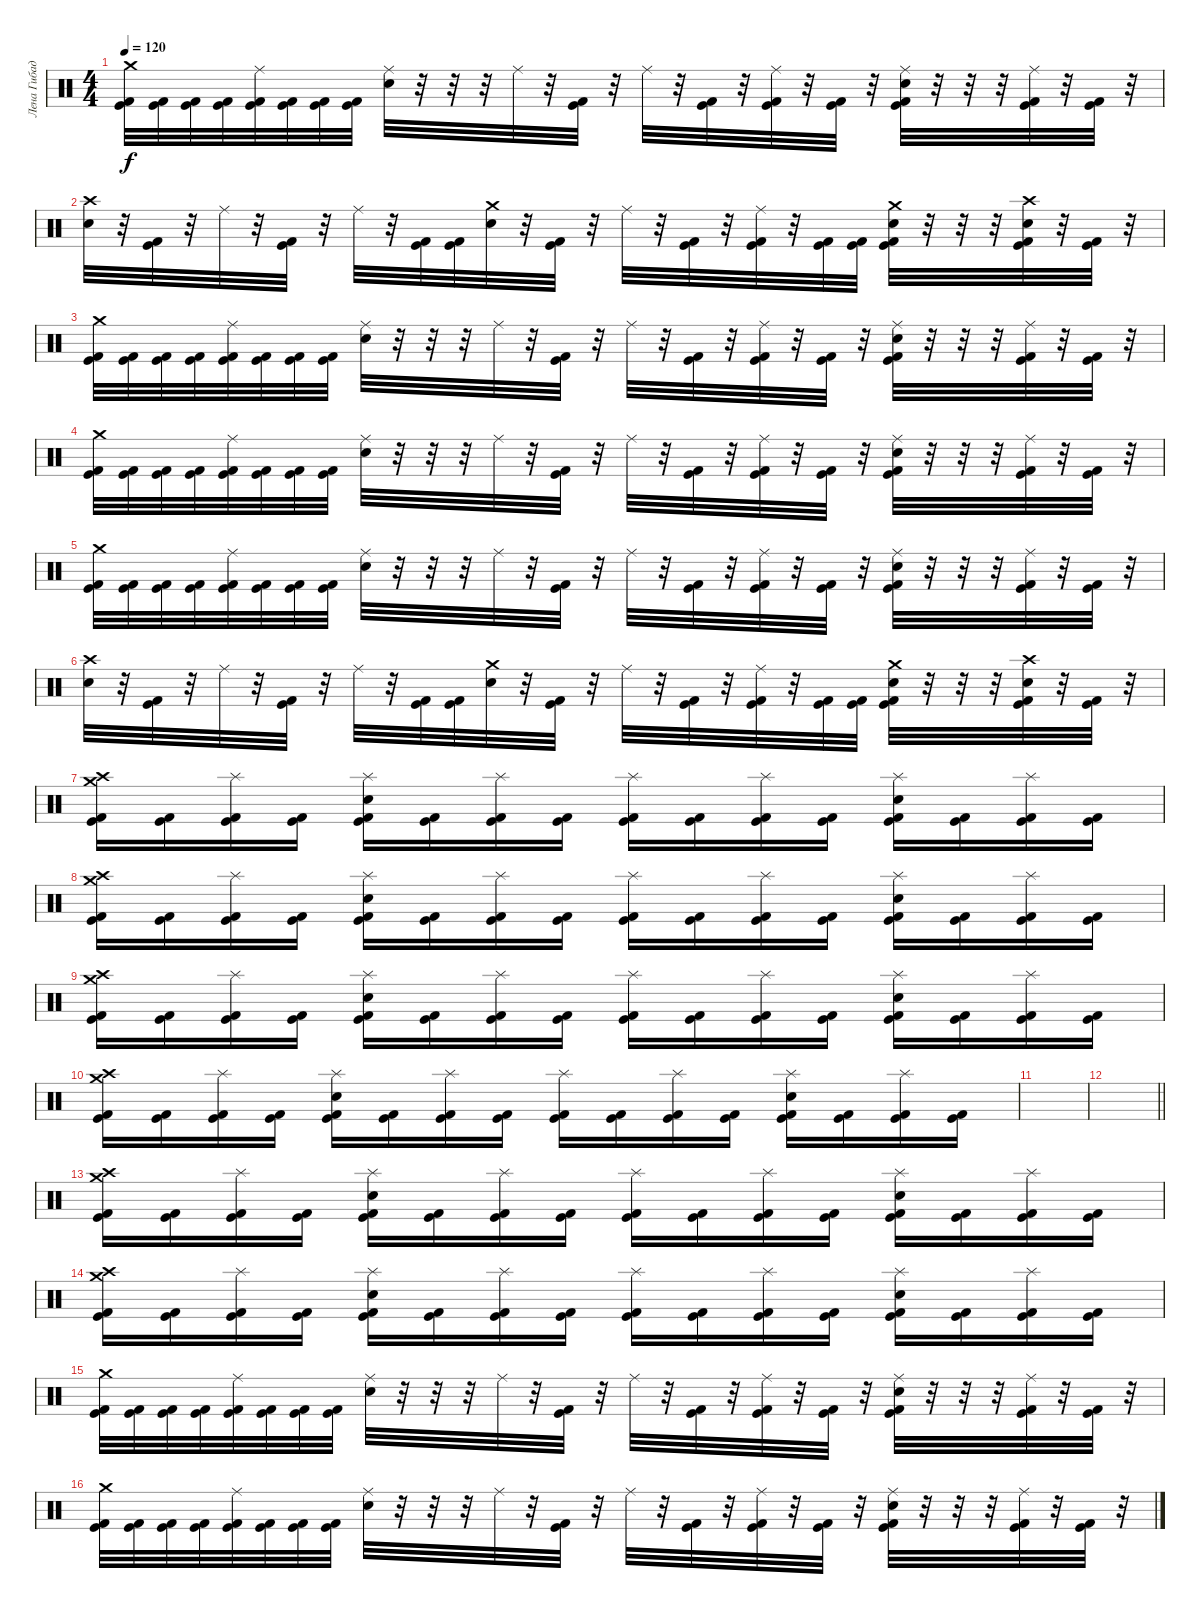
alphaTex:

\track ("Лена Гибадулина" "Лена Гибад") {instrument percussion}
\staff {score}
\articulation defaults
\ts (4 4)
\tempo 120
\clef neutral
\ks c
("Crash medium (hit)" "Kick (hit)" "Kick (hit) 2").32{dy f} ("Kick (hit)" "Kick (hit) 2").32 ("Kick (hit)" "Kick (hit) 2").32 ("Kick (hit)" "Kick (hit) 2").32 ("Ride (middle)" "Kick (hit)" "Kick (hit) 2").32 ("Kick (hit)" "Kick (hit) 2").32 ("Kick (hit)" "Kick (hit) 2").32 ("Kick (hit)" "Kick (hit) 2").32 ("Ride (middle)" "Electric Snare (hit)").32 r.32 r.32 r.32 "Ride (middle)".32 r.32 ("Kick (hit)" "Kick (hit) 2").32 r.32 "Ride (middle)".32 r.32 ("Kick (hit)" "Kick (hit) 2").32 r.32 ("Ride (middle)" "Kick (hit)" "Kick (hit) 2").32 r.32 ("Kick (hit)" "Kick (hit) 2").32 r.32 ("Ride (middle)" "Electric Snare (hit)" "Kick (hit)" "Kick (hit) 2").32 r.32 r.32 r.32 ("Ride (middle)" "Kick (hit)" "Kick (hit) 2").32 r.32 ("Kick (hit) 2" "Kick (hit)").32 r.32 |
("Crash high (hit)" "Electric Snare (hit)").32 r.32 ("Kick (hit)" "Kick (hit) 2").32 r.32 "Ride (middle)".32 r.32 ("Kick (hit)" "Kick (hit) 2").32 r.32 "Ride (middle)".32 r.32 ("Kick (hit)" "Kick (hit) 2").32 ("Kick (hit)" "Kick (hit) 2").32 ("Crash medium (hit)" "Electric Snare (hit)").32 r.32 ("Kick (hit)" "Kick (hit) 2").32 r.32 "Ride (middle)".32 r.32 ("Kick (hit)" "Kick (hit) 2").32 r.32 ("Ride (middle)" "Kick (hit)" "Kick (hit) 2").32 r.32 ("Kick (hit)" "Kick (hit) 2").32 ("Kick (hit)" "Kick (hit) 2").32 ("Crash medium (hit)" "Electric Snare (hit)" "Kick (hit)" "Kick (hit) 2").32 r.32 r.32 r.32 ("Crash high (hit)" "Electric Snare (hit)" "Kick (hit)" "Kick (hit) 2").32 r.32 ("Kick (hit) 2" "Kick (hit)").32 r.32 |
("Crash medium (hit)" "Kick (hit)" "Kick (hit) 2").32 ("Kick (hit)" "Kick (hit) 2").32 ("Kick (hit)" "Kick (hit) 2").32 ("Kick (hit)" "Kick (hit) 2").32 ("Ride (middle)" "Kick (hit)" "Kick (hit) 2").32 ("Kick (hit)" "Kick (hit) 2").32 ("Kick (hit)" "Kick (hit) 2").32 ("Kick (hit)" "Kick (hit) 2").32 ("Ride (middle)" "Electric Snare (hit)").32 r.32 r.32 r.32 "Ride (middle)".32 r.32 ("Kick (hit)" "Kick (hit) 2").32 r.32 "Ride (middle)".32 r.32 ("Kick (hit)" "Kick (hit) 2").32 r.32 ("Ride (middle)" "Kick (hit)" "Kick (hit) 2").32 r.32 ("Kick (hit)" "Kick (hit) 2").32 r.32 ("Ride (middle)" "Electric Snare (hit)" "Kick (hit)" "Kick (hit) 2").32 r.32 r.32 r.32 ("Ride (middle)" "Kick (hit)" "Kick (hit) 2").32 r.32 ("Kick (hit) 2" "Kick (hit)").32 r.32 |
("Crash medium (hit)" "Kick (hit)" "Kick (hit) 2").32 ("Kick (hit)" "Kick (hit) 2").32 ("Kick (hit)" "Kick (hit) 2").32 ("Kick (hit)" "Kick (hit) 2").32 ("Ride (middle)" "Kick (hit)" "Kick (hit) 2").32 ("Kick (hit)" "Kick (hit) 2").32 ("Kick (hit)" "Kick (hit) 2").32 ("Kick (hit)" "Kick (hit) 2").32 ("Ride (middle)" "Electric Snare (hit)").32 r.32 r.32 r.32 "Ride (middle)".32 r.32 ("Kick (hit)" "Kick (hit) 2").32 r.32 "Ride (middle)".32 r.32 ("Kick (hit)" "Kick (hit) 2").32 r.32 ("Ride (middle)" "Kick (hit)" "Kick (hit) 2").32 r.32 ("Kick (hit)" "Kick (hit) 2").32 r.32 ("Ride (middle)" "Electric Snare (hit)" "Kick (hit)" "Kick (hit) 2").32 r.32 r.32 r.32 ("Ride (middle)" "Kick (hit)" "Kick (hit) 2").32 r.32 ("Kick (hit) 2" "Kick (hit)").32 r.32 |
("Crash medium (hit)" "Kick (hit)" "Kick (hit) 2").32 ("Kick (hit)" "Kick (hit) 2").32 ("Kick (hit)" "Kick (hit) 2").32 ("Kick (hit)" "Kick (hit) 2").32 ("Ride (middle)" "Kick (hit)" "Kick (hit) 2").32 ("Kick (hit)" "Kick (hit) 2").32 ("Kick (hit)" "Kick (hit) 2").32 ("Kick (hit)" "Kick (hit) 2").32 ("Ride (middle)" "Electric Snare (hit)").32 r.32 r.32 r.32 "Ride (middle)".32 r.32 ("Kick (hit)" "Kick (hit) 2").32 r.32 "Ride (middle)".32 r.32 ("Kick (hit)" "Kick (hit) 2").32 r.32 ("Ride (middle)" "Kick (hit)" "Kick (hit) 2").32 r.32 ("Kick (hit)" "Kick (hit) 2").32 r.32 ("Ride (middle)" "Electric Snare (hit)" "Kick (hit)" "Kick (hit) 2").32 r.32 r.32 r.32 ("Ride (middle)" "Kick (hit)" "Kick (hit) 2").32 r.32 ("Kick (hit) 2" "Kick (hit)").32 r.32 |
("Crash high (hit)" "Electric Snare (hit)").32 r.32 ("Kick (hit)" "Kick (hit) 2").32 r.32 "Ride (middle)".32 r.32 ("Kick (hit)" "Kick (hit) 2").32 r.32 "Ride (middle)".32 r.32 ("Kick (hit)" "Kick (hit) 2").32 ("Kick (hit)" "Kick (hit) 2").32 ("Crash medium (hit)" "Electric Snare (hit)").32 r.32 ("Kick (hit)" "Kick (hit) 2").32 r.32 "Ride (middle)".32 r.32 ("Kick (hit)" "Kick (hit) 2").32 r.32 ("Ride (middle)" "Kick (hit)" "Kick (hit) 2").32 r.32 ("Kick (hit)" "Kick (hit) 2").32 ("Kick (hit)" "Kick (hit) 2").32 ("Crash medium (hit)" "Electric Snare (hit)" "Kick (hit)" "Kick (hit) 2").32 r.32 r.32 r.32 ("Crash high (hit)" "Electric Snare (hit)" "Kick (hit)" "Kick (hit) 2").32 r.32 ("Kick (hit) 2" "Kick (hit)").32 r.32 |
("Crash high (hit)" "Crash medium (hit)" "Kick (hit)" "Kick (hit) 2").16 ("Kick (hit)" "Kick (hit) 2").16 ("Splash (hit)" "Kick (hit)" "Kick (hit) 2").16 ("Kick (hit)" "Kick (hit) 2").16 ("Electric Snare (hit)" "Splash (hit)" "Kick (hit)" "Kick (hit) 2").16 ("Kick (hit)" "Kick (hit) 2").16 ("Splash (hit)" "Kick (hit)" "Kick (hit) 2").16 ("Kick (hit)" "Kick (hit) 2").16 ("Splash (hit)" "Kick (hit)" "Kick (hit) 2").16 ("Kick (hit)" "Kick (hit) 2").16 ("Splash (hit)" "Kick (hit)" "Kick (hit) 2").16 ("Kick (hit)" "Kick (hit) 2").16 ("Electric Snare (hit)" "Splash (hit)" "Kick (hit)" "Kick (hit) 2").16 ("Kick (hit)" "Kick (hit) 2").16 ("Splash (hit)" "Kick (hit)" "Kick (hit) 2").16 ("Kick (hit)" "Kick (hit) 2").16 |
("Crash high (hit)" "Crash medium (hit)" "Kick (hit)" "Kick (hit) 2").16 ("Kick (hit)" "Kick (hit) 2").16 ("Splash (hit)" "Kick (hit)" "Kick (hit) 2").16 ("Kick (hit)" "Kick (hit) 2").16 ("Electric Snare (hit)" "Splash (hit)" "Kick (hit)" "Kick (hit) 2").16 ("Kick (hit)" "Kick (hit) 2").16 ("Splash (hit)" "Kick (hit)" "Kick (hit) 2").16 ("Kick (hit)" "Kick (hit) 2").16 ("Splash (hit)" "Kick (hit)" "Kick (hit) 2").16 ("Kick (hit)" "Kick (hit) 2").16 ("Splash (hit)" "Kick (hit)" "Kick (hit) 2").16 ("Kick (hit)" "Kick (hit) 2").16 ("Electric Snare (hit)" "Splash (hit)" "Kick (hit)" "Kick (hit) 2").16 ("Kick (hit)" "Kick (hit) 2").16 ("Splash (hit)" "Kick (hit)" "Kick (hit) 2").16 ("Kick (hit)" "Kick (hit) 2").16 |
("Crash high (hit)" "Crash medium (hit)" "Kick (hit)" "Kick (hit) 2").16 ("Kick (hit)" "Kick (hit) 2").16 ("Splash (hit)" "Kick (hit)" "Kick (hit) 2").16 ("Kick (hit)" "Kick (hit) 2").16 ("Electric Snare (hit)" "Splash (hit)" "Kick (hit)" "Kick (hit) 2").16 ("Kick (hit)" "Kick (hit) 2").16 ("Splash (hit)" "Kick (hit)" "Kick (hit) 2").16 ("Kick (hit)" "Kick (hit) 2").16 ("Splash (hit)" "Kick (hit)" "Kick (hit) 2").16 ("Kick (hit)" "Kick (hit) 2").16 ("Splash (hit)" "Kick (hit)" "Kick (hit) 2").16 ("Kick (hit)" "Kick (hit) 2").16 ("Electric Snare (hit)" "Splash (hit)" "Kick (hit)" "Kick (hit) 2").16 ("Kick (hit)" "Kick (hit) 2").16 ("Splash (hit)" "Kick (hit)" "Kick (hit) 2").16 ("Kick (hit)" "Kick (hit) 2").16 |
("Crash high (hit)" "Crash medium (hit)" "Kick (hit)" "Kick (hit) 2").16 ("Kick (hit)" "Kick (hit) 2").16 ("Splash (hit)" "Kick (hit)" "Kick (hit) 2").16 ("Kick (hit)" "Kick (hit) 2").16 ("Electric Snare (hit)" "Splash (hit)" "Kick (hit)" "Kick (hit) 2").16 ("Kick (hit)" "Kick (hit) 2").16 ("Splash (hit)" "Kick (hit)" "Kick (hit) 2").16 ("Kick (hit)" "Kick (hit) 2").16 ("Splash (hit)" "Kick (hit)" "Kick (hit) 2").16 ("Kick (hit)" "Kick (hit) 2").16 ("Splash (hit)" "Kick (hit)" "Kick (hit) 2").16 ("Kick (hit)" "Kick (hit) 2").16 ("Electric Snare (hit)" "Splash (hit)" "Kick (hit)" "Kick (hit) 2").16 ("Kick (hit)" "Kick (hit) 2").16 ("Splash (hit)" "Kick (hit)" "Kick (hit) 2").16 ("Kick (hit)" "Kick (hit) 2").16 |
|
\barLineRight lightlight
|
("Crash high (hit)" "Crash medium (hit)" "Kick (hit)" "Kick (hit) 2").16 ("Kick (hit)" "Kick (hit) 2").16 ("Splash (hit)" "Kick (hit)" "Kick (hit) 2").16 ("Kick (hit)" "Kick (hit) 2").16 ("Electric Snare (hit)" "Splash (hit)" "Kick (hit)" "Kick (hit) 2").16 ("Kick (hit)" "Kick (hit) 2").16 ("Splash (hit)" "Kick (hit)" "Kick (hit) 2").16 ("Kick (hit)" "Kick (hit) 2").16 ("Splash (hit)" "Kick (hit)" "Kick (hit) 2").16 ("Kick (hit)" "Kick (hit) 2").16 ("Splash (hit)" "Kick (hit)" "Kick (hit) 2").16 ("Kick (hit)" "Kick (hit) 2").16 ("Electric Snare (hit)" "Splash (hit)" "Kick (hit)" "Kick (hit) 2").16 ("Kick (hit)" "Kick (hit) 2").16 ("Splash (hit)" "Kick (hit)" "Kick (hit) 2").16 ("Kick (hit)" "Kick (hit) 2").16 |
("Crash high (hit)" "Crash medium (hit)" "Kick (hit)" "Kick (hit) 2").16 ("Kick (hit)" "Kick (hit) 2").16 ("Splash (hit)" "Kick (hit)" "Kick (hit) 2").16 ("Kick (hit)" "Kick (hit) 2").16 ("Electric Snare (hit)" "Splash (hit)" "Kick (hit)" "Kick (hit) 2").16 ("Kick (hit)" "Kick (hit) 2").16 ("Splash (hit)" "Kick (hit)" "Kick (hit) 2").16 ("Kick (hit)" "Kick (hit) 2").16 ("Splash (hit)" "Kick (hit)" "Kick (hit) 2").16 ("Kick (hit)" "Kick (hit) 2").16 ("Splash (hit)" "Kick (hit)" "Kick (hit) 2").16 ("Kick (hit)" "Kick (hit) 2").16 ("Electric Snare (hit)" "Splash (hit)" "Kick (hit)" "Kick (hit) 2").16 ("Kick (hit)" "Kick (hit) 2").16 ("Splash (hit)" "Kick (hit)" "Kick (hit) 2").16 ("Kick (hit)" "Kick (hit) 2").16 |
("Crash medium (hit)" "Kick (hit)" "Kick (hit) 2").32 ("Kick (hit)" "Kick (hit) 2").32 ("Kick (hit)" "Kick (hit) 2").32 ("Kick (hit)" "Kick (hit) 2").32 ("Ride (middle)" "Kick (hit)" "Kick (hit) 2").32 ("Kick (hit)" "Kick (hit) 2").32 ("Kick (hit)" "Kick (hit) 2").32 ("Kick (hit)" "Kick (hit) 2").32 ("Ride (middle)" "Electric Snare (hit)").32 r.32 r.32 r.32 "Ride (middle)".32 r.32 ("Kick (hit)" "Kick (hit) 2").32 r.32 "Ride (middle)".32 r.32 ("Kick (hit)" "Kick (hit) 2").32 r.32 ("Ride (middle)" "Kick (hit)" "Kick (hit) 2").32 r.32 ("Kick (hit)" "Kick (hit) 2").32 r.32 ("Ride (middle)" "Electric Snare (hit)" "Kick (hit)" "Kick (hit) 2").32 r.32 r.32 r.32 ("Ride (middle)" "Kick (hit)" "Kick (hit) 2").32 r.32 ("Kick (hit) 2" "Kick (hit)").32 r.32 |
("Crash medium (hit)" "Kick (hit)" "Kick (hit) 2").32 ("Kick (hit)" "Kick (hit) 2").32 ("Kick (hit)" "Kick (hit) 2").32 ("Kick (hit)" "Kick (hit) 2").32 ("Ride (middle)" "Kick (hit)" "Kick (hit) 2").32 ("Kick (hit)" "Kick (hit) 2").32 ("Kick (hit)" "Kick (hit) 2").32 ("Kick (hit)" "Kick (hit) 2").32 ("Ride (middle)" "Electric Snare (hit)").32 r.32 r.32 r.32 "Ride (middle)".32 r.32 ("Kick (hit)" "Kick (hit) 2").32 r.32 "Ride (middle)".32 r.32 ("Kick (hit)" "Kick (hit) 2").32 r.32 ("Ride (middle)" "Kick (hit)" "Kick (hit) 2").32 r.32 ("Kick (hit)" "Kick (hit) 2").32 r.32 ("Ride (middle)" "Electric Snare (hit)" "Kick (hit)" "Kick (hit) 2").32 r.32 r.32 r.32 ("Ride (middle)" "Kick (hit)" "Kick (hit) 2").32 r.32 ("Kick (hit) 2" "Kick (hit)").32 r.32
